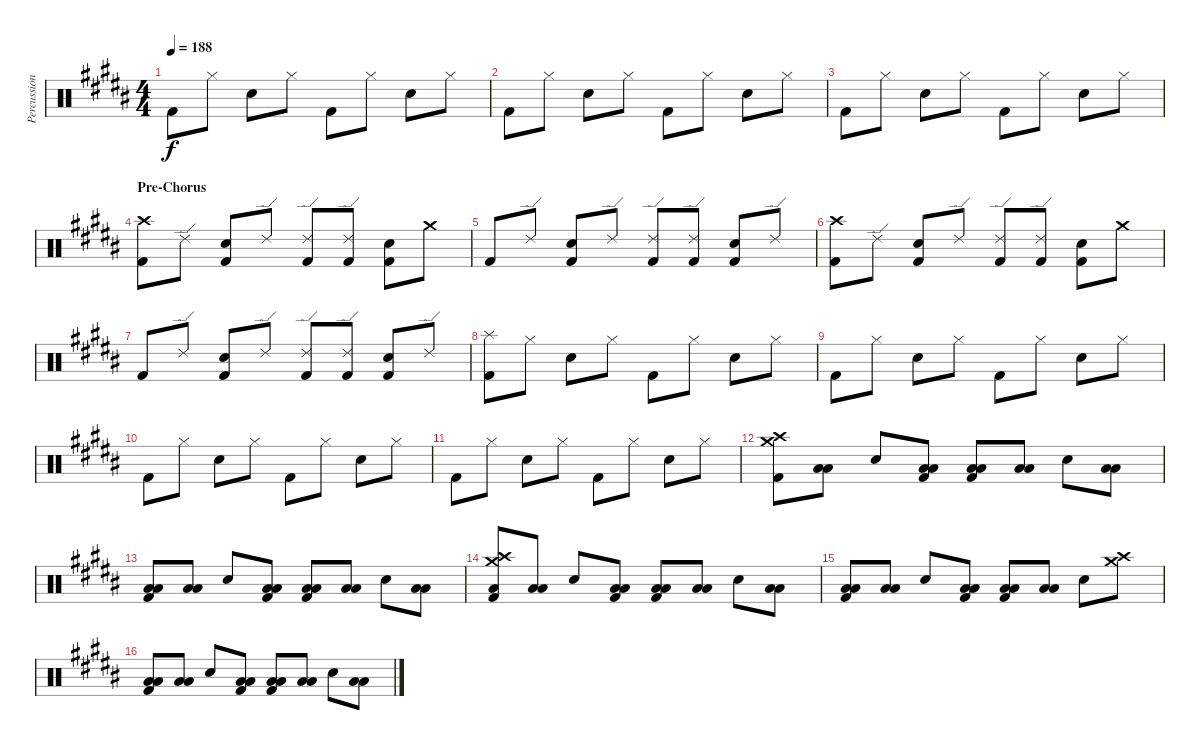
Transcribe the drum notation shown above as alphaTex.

\track ("Percussion" "Percussion") {instrument percussion}
\staff {score}
\articulation defaults
\ts (4 4)
\tempo 188
\clef neutral
\ks b "Kick (hit) 2".8{dy f} "Hi-Hat (closed)".8 "Electric Snare (hit)".8 "Hi-Hat (closed)".8 "Kick (hit) 2".8 "Hi-Hat (closed)".8 "Electric Snare (hit)".8 "Hi-Hat (closed)".8
|
"Kick (hit) 2".8 "Hi-Hat (closed)".8 "Electric Snare (hit)".8 "Hi-Hat (closed)".8 "Kick (hit) 2".8 "Hi-Hat (closed)".8 "Electric Snare (hit)".8 "Hi-Hat (closed)".8 |
"Kick (hit) 2".8 "Hi-Hat (closed)".8 "Electric Snare (hit)".8 "Hi-Hat (closed)".8 "Kick (hit) 2".8 "Hi-Hat (closed)".8 "Electric Snare (hit)".8 "Hi-Hat (closed)".8 |
\section ("" "Pre-Chorus")
("Crash high (hit)" "Kick (hit) 2").8 "Ride (edge) 2".8 ("Electric Snare (hit)" "Kick (hit) 2").8 "Ride (edge) 2".8 ("Ride (edge) 2" "Kick (hit) 2").8 ("Ride (edge) 2" "Kick (hit) 2").8 ("Electric Snare (hit)" "Kick (hit) 2").8 "Crash medium (hit)".8 |
"Kick (hit) 2".8 "Ride (edge) 2".8 ("Electric Snare (hit)" "Kick (hit) 2").8 "Ride (edge) 2".8 ("Ride (edge) 2" "Kick (hit) 2").8 ("Ride (edge) 2" "Kick (hit) 2").8 ("Electric Snare (hit)" "Kick (hit) 2").8 "Ride (edge) 2".8 |
("Crash high (hit)" "Kick (hit) 2").8 "Ride (edge) 2".8 ("Electric Snare (hit)" "Kick (hit) 2").8 "Ride (edge) 2".8 ("Ride (edge) 2" "Kick (hit) 2").8 ("Ride (edge) 2" "Kick (hit) 2").8 ("Electric Snare (hit)" "Kick (hit) 2").8 "Crash medium (hit)".8 |
"Kick (hit) 2".8 "Ride (edge) 2".8 ("Electric Snare (hit)" "Kick (hit) 2").8 "Ride (edge) 2".8 ("Ride (edge) 2" "Kick (hit) 2").8 ("Ride (edge) 2" "Kick (hit) 2").8 ("Electric Snare (hit)" "Kick (hit) 2").8 "Ride (edge) 2".8 |
("Splash (hit)" "Kick (hit) 2").8 "Hi-Hat (closed)".8 "Electric Snare (hit)".8 "Hi-Hat (closed)".8 "Kick (hit) 2".8 "Hi-Hat (closed)".8 "Electric Snare (hit)".8 "Hi-Hat (closed)".8 |
"Kick (hit) 2".8 "Hi-Hat (closed)".8 "Electric Snare (hit)".8 "Hi-Hat (closed)".8 "Kick (hit) 2".8 "Hi-Hat (closed)".8 "Electric Snare (hit)".8 "Hi-Hat (closed)".8 |
"Kick (hit) 2".8 "Hi-Hat (closed)".8 "Electric Snare (hit)".8 "Hi-Hat (closed)".8 "Kick (hit) 2".8 "Hi-Hat (closed)".8 "Electric Snare (hit)".8 "Hi-Hat (closed)".8 |
"Kick (hit) 2".8 "Hi-Hat (closed)".8 "Electric Snare (hit)".8 "Hi-Hat (closed)".8 "Kick (hit) 2".8 "Hi-Hat (closed)".8 "Electric Snare (hit)".8 "Hi-Hat (closed)".8 |
("Crash high (hit)" "Crash medium (hit)" "Kick (hit) 2").8 ("Low Tom (hit)" "Low Floor Tom (hit)").8 "Electric Snare (hit)".8 ("Low Tom (hit)" "Low Floor Tom (hit)" "Kick (hit) 2").8 ("Low Tom (hit)" "Low Floor Tom (hit)" "Kick (hit) 2").8 ("Low Tom (hit)" "Low Floor Tom (hit)").8 "Electric Snare (hit)".8 ("Low Tom (hit)" "Low Floor Tom (hit)").8 |
("Low Tom (hit)" "Low Floor Tom (hit)" "Kick (hit) 2").8 ("Low Tom (hit)" "Low Floor Tom (hit)").8 "Electric Snare (hit)".8 ("Low Tom (hit)" "Low Floor Tom (hit)" "Kick (hit) 2").8 ("Low Tom (hit)" "Low Floor Tom (hit)" "Kick (hit) 2").8 ("Low Tom (hit)" "Low Floor Tom (hit)").8 "Electric Snare (hit)".8 ("Low Tom (hit)" "Low Floor Tom (hit)").8 |
("Crash medium (hit)" "Crash high (hit)" "Low Floor Tom (hit)" "Kick (hit) 2").8 ("Low Tom (hit)" "Low Floor Tom (hit)").8 "Electric Snare (hit)".8 ("Low Tom (hit)" "Low Floor Tom (hit)" "Kick (hit) 2").8 ("Low Tom (hit)" "Low Floor Tom (hit)" "Kick (hit) 2").8 ("Low Tom (hit)" "Low Floor Tom (hit)").8 "Electric Snare (hit)".8 ("Low Tom (hit)" "Low Floor Tom (hit)").8 |
("Low Tom (hit)" "Low Floor Tom (hit)" "Kick (hit) 2").8 ("Low Tom (hit)" "Low Floor Tom (hit)").8 "Electric Snare (hit)".8 ("Low Tom (hit)" "Low Floor Tom (hit)" "Kick (hit) 2").8 ("Low Tom (hit)" "Low Floor Tom (hit)" "Kick (hit) 2").8 ("Low Tom (hit)" "Low Floor Tom (hit)").8 "Electric Snare (hit)".8 ("Crash high (hit)" "Crash medium (hit)").8 |
("Low Tom (hit)" "Low Floor Tom (hit)" "Kick (hit) 2").8 ("Low Tom (hit)" "Low Floor Tom (hit)").8 "Electric Snare (hit)".8 ("Low Tom (hit)" "Low Floor Tom (hit)" "Kick (hit) 2").8 ("Low Tom (hit)" "Low Floor Tom (hit)" "Kick (hit) 2").8 ("Low Tom (hit)" "Low Floor Tom (hit)").8 "Electric Snare (hit)".8 ("Low Tom (hit)" "Low Floor Tom (hit)").8
